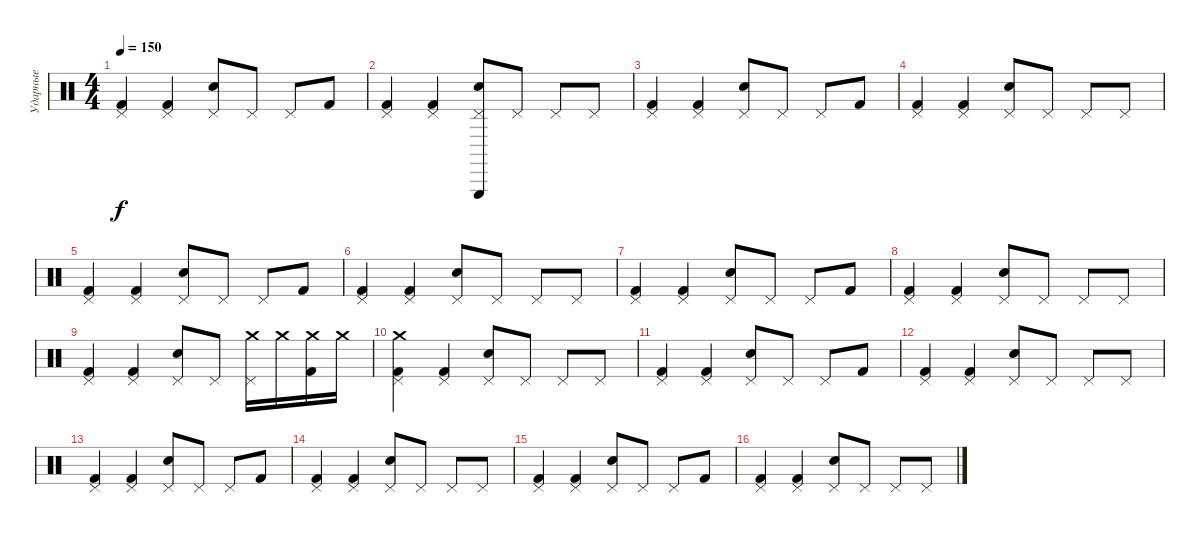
\track ("Ударные" "Ударные") {instrument percussion}
\staff {score}
\articulation defaults
\ts (4 4)
\tempo 150
\clef neutral
\ks c
("Pedal Hi-Hat (hit)" "Kick (hit) 2").4{dy f} ("Pedal Hi-Hat (hit)" "Kick (hit) 2").4 ("Pedal Hi-Hat (hit)" "Snare (hit) 2").8 "Pedal Hi-Hat (hit)".8 "Pedal Hi-Hat (hit)".8 "Kick (hit) 2".8 |
("Pedal Hi-Hat (hit)" "Kick (hit) 2").4 ("Pedal Hi-Hat (hit)" "Kick (hit) 2").4 ("Triangle (hit)" "Pedal Hi-Hat (hit)" "Snare (hit) 2").8 "Pedal Hi-Hat (hit)".8 "Pedal Hi-Hat (hit)".8 "Pedal Hi-Hat (hit)".8 |
("Pedal Hi-Hat (hit)" "Kick (hit) 2").4 ("Pedal Hi-Hat (hit)" "Kick (hit) 2").4 ("Pedal Hi-Hat (hit)" "Snare (hit) 2").8 "Pedal Hi-Hat (hit)".8 "Pedal Hi-Hat (hit)".8 "Kick (hit) 2".8 |
("Pedal Hi-Hat (hit)" "Kick (hit) 2").4 ("Pedal Hi-Hat (hit)" "Kick (hit) 2").4 ("Pedal Hi-Hat (hit)" "Snare (hit) 2").8 "Pedal Hi-Hat (hit)".8 "Pedal Hi-Hat (hit)".8 "Pedal Hi-Hat (hit)".8 |
("Pedal Hi-Hat (hit)" "Kick (hit) 2").4 ("Pedal Hi-Hat (hit)" "Kick (hit) 2").4 ("Pedal Hi-Hat (hit)" "Snare (hit) 2").8 "Pedal Hi-Hat (hit)".8 "Pedal Hi-Hat (hit)".8 "Kick (hit) 2".8 |
("Pedal Hi-Hat (hit)" "Kick (hit) 2").4 ("Pedal Hi-Hat (hit)" "Kick (hit) 2").4 ("Pedal Hi-Hat (hit)" "Snare (hit) 2").8 "Pedal Hi-Hat (hit)".8 "Pedal Hi-Hat (hit)".8 "Pedal Hi-Hat (hit)".8 |
("Pedal Hi-Hat (hit)" "Kick (hit) 2").4 ("Pedal Hi-Hat (hit)" "Kick (hit) 2").4 ("Pedal Hi-Hat (hit)" "Snare (hit) 2").8 "Pedal Hi-Hat (hit)".8 "Pedal Hi-Hat (hit)".8 "Kick (hit) 2".8 |
("Pedal Hi-Hat (hit)" "Kick (hit) 2").4 ("Pedal Hi-Hat (hit)" "Kick (hit) 2").4 ("Pedal Hi-Hat (hit)" "Snare (hit) 2").8 "Pedal Hi-Hat (hit)".8 "Pedal Hi-Hat (hit)".8 "Pedal Hi-Hat (hit)".8 |
("Pedal Hi-Hat (hit)" "Kick (hit) 2").4 ("Pedal Hi-Hat (hit)" "Kick (hit) 2").4 ("Pedal Hi-Hat (hit)" "Snare (hit) 2").8 "Pedal Hi-Hat (hit)".8 ("Crash medium (hit)" "Pedal Hi-Hat (hit)").16 "Crash medium (hit)".16 ("Crash medium (hit)" "Kick (hit) 2").16 "Crash medium (hit)".16 |
("Crash medium (hit)" "Pedal Hi-Hat (hit)" "Kick (hit) 2").4 ("Pedal Hi-Hat (hit)" "Kick (hit) 2").4 ("Pedal Hi-Hat (hit)" "Snare (hit) 2").8 "Pedal Hi-Hat (hit)".8 "Pedal Hi-Hat (hit)".8 "Pedal Hi-Hat (hit)".8 |
("Pedal Hi-Hat (hit)" "Kick (hit) 2").4 ("Pedal Hi-Hat (hit)" "Kick (hit) 2").4 ("Pedal Hi-Hat (hit)" "Snare (hit) 2").8 "Pedal Hi-Hat (hit)".8 "Pedal Hi-Hat (hit)".8 "Kick (hit) 2".8 |
("Pedal Hi-Hat (hit)" "Kick (hit) 2").4 ("Pedal Hi-Hat (hit)" "Kick (hit) 2").4 ("Pedal Hi-Hat (hit)" "Snare (hit) 2").8 "Pedal Hi-Hat (hit)".8 "Pedal Hi-Hat (hit)".8 "Pedal Hi-Hat (hit)".8 |
("Pedal Hi-Hat (hit)" "Kick (hit) 2").4 ("Pedal Hi-Hat (hit)" "Kick (hit) 2").4 ("Pedal Hi-Hat (hit)" "Snare (hit) 2").8 "Pedal Hi-Hat (hit)".8 "Pedal Hi-Hat (hit)".8 "Kick (hit) 2".8 |
("Pedal Hi-Hat (hit)" "Kick (hit) 2").4 ("Pedal Hi-Hat (hit)" "Kick (hit) 2").4 ("Pedal Hi-Hat (hit)" "Snare (hit) 2").8 "Pedal Hi-Hat (hit)".8 "Pedal Hi-Hat (hit)".8 "Pedal Hi-Hat (hit)".8 |
("Pedal Hi-Hat (hit)" "Kick (hit) 2").4 ("Pedal Hi-Hat (hit)" "Kick (hit) 2").4 ("Pedal Hi-Hat (hit)" "Snare (hit) 2").8 "Pedal Hi-Hat (hit)".8 "Pedal Hi-Hat (hit)".8 "Kick (hit) 2".8 |
("Pedal Hi-Hat (hit)" "Kick (hit) 2").4 ("Pedal Hi-Hat (hit)" "Kick (hit) 2").4 ("Pedal Hi-Hat (hit)" "Snare (hit) 2").8 "Pedal Hi-Hat (hit)".8 "Pedal Hi-Hat (hit)".8 "Pedal Hi-Hat (hit)".8
